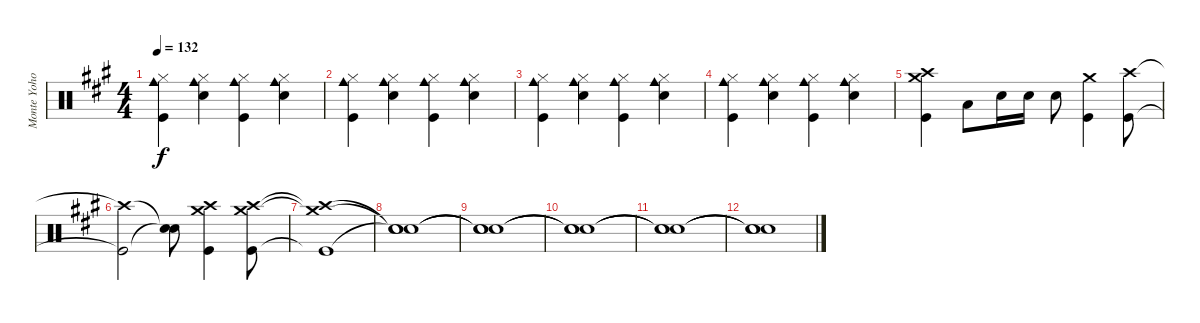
\track ("Monte Yoho Drums" "Monte Yoho") {instrument percussion}
\staff {score}
\articulation defaults
\ts (4 4)
\tempo 132
\clef neutral
\ks a
("Hi-Hat (closed)" "Cowbell medium (hit)" "Kick (hit)").4{dy f} ("Hi-Hat (closed)" "Cowbell medium (hit)" "Snare (hit) 2").4 ("Hi-Hat (closed)" "Cowbell medium (hit)" "Kick (hit)").4 ("Hi-Hat (closed)" "Cowbell medium (hit)" "Snare (hit) 2").4 |
("Hi-Hat (closed)" "Cowbell medium (hit)" "Kick (hit)").4 ("Hi-Hat (closed)" "Cowbell medium (hit)" "Snare (hit) 2").4 ("Hi-Hat (closed)" "Cowbell medium (hit)" "Kick (hit)").4 ("Hi-Hat (closed)" "Cowbell medium (hit)" "Snare (hit) 2").4 |
("Hi-Hat (closed)" "Cowbell medium (hit)" "Kick (hit)").4 ("Hi-Hat (closed)" "Cowbell medium (hit)" "Snare (hit) 2").4 ("Hi-Hat (closed)" "Cowbell medium (hit)" "Kick (hit)").4 ("Hi-Hat (closed)" "Cowbell medium (hit)" "Snare (hit) 2").4 |
("Hi-Hat (closed)" "Cowbell medium (hit)" "Kick (hit)").4 ("Hi-Hat (closed)" "Cowbell medium (hit)" "Snare (hit) 2").4 ("Hi-Hat (closed)" "Cowbell medium (hit)" "Kick (hit)").4 ("Hi-Hat (closed)" "Cowbell medium (hit)" "Snare (hit) 2").4 |
("Crash high (hit)" "Crash medium (hit)" "Kick (hit)").4 "Low Tom (hit)".8 "Snare (hit) 2".16 "Snare (hit) 2".16 "Snare (hit) 2".8 ("Crash medium (hit)" "Kick (hit)").4 ("Crash high (hit)" "Kick (hit)").8 |
("Crash high (hit)"{t} "Kick (hit)"{t}).2 ("Snare (hit)"{t} "Snare (hit)"{t}).8 ("Crash high (hit)" "Crash medium (hit)" "Kick (hit)").4 ("Crash high (hit)" "Crash medium (hit)" "Kick (hit)").8 |
("Crash high (hit)"{t} "Crash medium (hit)"{t} "Kick (hit)"{t}).1 |
("Snare (hit)"{t} "Snare (hit)"{t} "Snare (hit)"{t}).1 |
("Snare (hit)"{t} "Snare (hit)"{t} "Snare (hit)"{t}).1 |
("Snare (hit)"{t} "Snare (hit)"{t} "Snare (hit)"{t}).1 |
("Snare (hit)"{t} "Snare (hit)"{t} "Snare (hit)"{t}).1 |
("Snare (hit)"{t} "Snare (hit)"{t} "Snare (hit)"{t}).1
